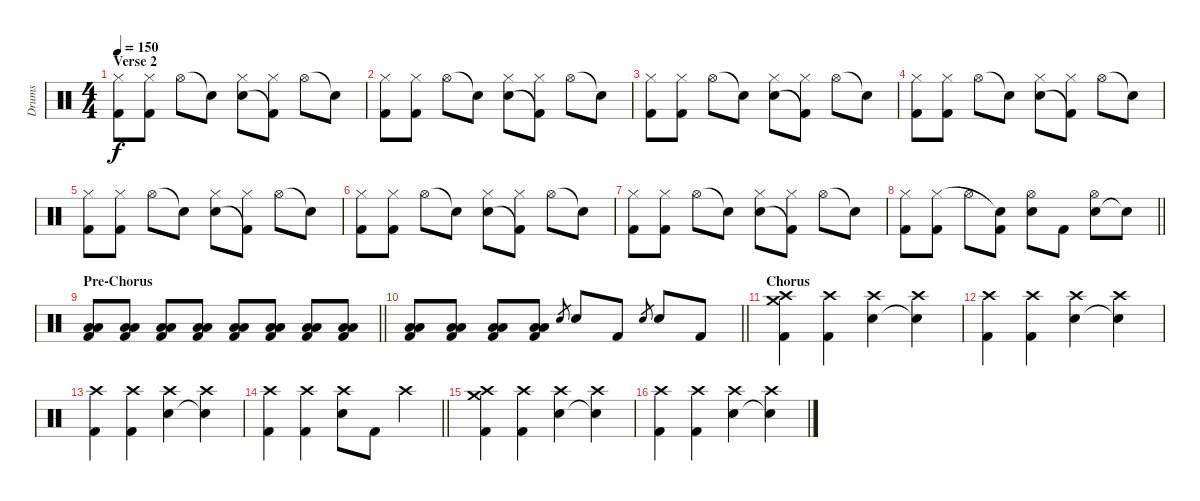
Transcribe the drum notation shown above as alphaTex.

\track ("Drums" "Drums") {instrument percussion}
\staff {score}
\articulation defaults
\ts (4 4)
\section ("" "Verse 2")
\tempo 150
\clef neutral
\ks c
("Kick (hit) 2" "Hi-Hat (closed)").8{dy f} ("Kick (hit) 2" "Hi-Hat (closed)").8 "Hi-Hat (open)".8 "Snare (hit)"{t}.8 ("Electric Snare (hit)" "Hi-Hat (closed)").8 ("Kick (hit) 2"{t} "Hi-Hat (closed)").8 "Hi-Hat (open)".8 "Snare (hit)"{t}.8 |
("Kick (hit) 2" "Hi-Hat (closed)").8 ("Kick (hit) 2" "Hi-Hat (closed)").8 "Hi-Hat (open)".8 "Snare (hit)"{t}.8 ("Electric Snare (hit)" "Hi-Hat (closed)").8 ("Kick (hit) 2"{t} "Hi-Hat (closed)").8 "Hi-Hat (open)".8 "Snare (hit)"{t}.8 |
("Kick (hit) 2" "Hi-Hat (closed)").8 ("Kick (hit) 2" "Hi-Hat (closed)").8 "Hi-Hat (open)".8 "Snare (hit)"{t}.8 ("Electric Snare (hit)" "Hi-Hat (closed)").8 ("Kick (hit) 2"{t} "Hi-Hat (closed)").8 "Hi-Hat (open)".8 "Snare (hit)"{t}.8 |
("Kick (hit) 2" "Hi-Hat (closed)").8 ("Kick (hit) 2" "Hi-Hat (closed)").8 "Hi-Hat (open)".8 "Snare (hit)"{t}.8 ("Electric Snare (hit)" "Hi-Hat (closed)").8 ("Kick (hit) 2"{t} "Hi-Hat (closed)").8 "Hi-Hat (open)".8 "Snare (hit)"{t}.8 |
("Kick (hit) 2" "Hi-Hat (closed)").8 ("Kick (hit) 2" "Hi-Hat (closed)").8 "Hi-Hat (open)".8 "Snare (hit)"{t}.8 ("Electric Snare (hit)" "Hi-Hat (closed)").8 ("Kick (hit) 2"{t} "Hi-Hat (closed)").8 "Hi-Hat (open)".8 "Snare (hit)"{t}.8 |
("Kick (hit) 2" "Hi-Hat (closed)").8 ("Kick (hit) 2" "Hi-Hat (closed)").8 "Hi-Hat (open)".8 "Snare (hit)"{t}.8 ("Electric Snare (hit)" "Hi-Hat (closed)").8 ("Kick (hit) 2"{t} "Hi-Hat (closed)").8 "Hi-Hat (open)".8 "Snare (hit)"{t}.8 |
("Kick (hit) 2" "Hi-Hat (closed)").8 ("Kick (hit) 2" "Hi-Hat (closed)").8 "Hi-Hat (open)".8 "Snare (hit)"{t}.8 ("Electric Snare (hit)" "Hi-Hat (closed)").8 ("Kick (hit) 2"{t} "Hi-Hat (closed)").8 "Hi-Hat (open)".8 "Snare (hit)"{t}.8 |
\barLineRight lightlight
("Kick (hit) 2" "Hi-Hat (closed)").8 ("Kick (hit) 2" "Hi-Hat (closed)").8 "Hi-Hat (open)".8 ("Kick (hit) 2" "Snare (hit)"{t}).8 ("Electric Snare (hit)" "Hi-Hat (open)").8 "Kick (hit) 2".8 ("Electric Snare (hit)" "Hi-Hat (open)").8 "Snare (hit)"{t}.8 |
\section ("" "Pre-Chorus")
\barLineRight lightlight
("Kick (hit) 2" "Low Tom (hit)" "Low Floor Tom (hit)").8{volume 7} ("Kick (hit) 2" "Low Tom (hit)" "Low Floor Tom (hit)").8{volume 13} ("Kick (hit) 2" "Low Tom (hit)" "Low Floor Tom (hit)").8 ("Kick (hit) 2" "Low Tom (hit)" "Low Floor Tom (hit)").8 ("Kick (hit) 2" "Low Tom (hit)" "Low Floor Tom (hit)").8 ("Kick (hit) 2" "Low Tom (hit)" "Low Floor Tom (hit)").8 ("Kick (hit) 2" "Low Tom (hit)" "Low Floor Tom (hit)").8 ("Kick (hit) 2" "Low Tom (hit)" "Low Floor Tom (hit)").8 |
\barLineRight lightlight
("Kick (hit) 2" "Low Tom (hit)" "Low Floor Tom (hit)").8 ("Kick (hit) 2" "Low Tom (hit)" "Low Floor Tom (hit)").8 ("Kick (hit) 2" "Low Tom (hit)" "Low Floor Tom (hit)").8 ("Kick (hit) 2" "Low Tom (hit)" "Low Floor Tom (hit)").8 "Electric Snare (hit)".8{gr} "Electric Snare (hit)".8 "Kick (hit) 2".8 "Electric Snare (hit)".8{gr} "Electric Snare (hit)".8 "Kick (hit) 2".8 |
\section ("" "Chorus")
("Kick (hit) 2" "Crash medium (hit)" "Crash high (hit)").4 ("Kick (hit) 2" "Crash high (hit)").4 ("Electric Snare (hit)" "Crash high (hit)").4 ("Snare (hit)"{t} "Crash high (hit)").4 |
("Kick (hit) 2" "Crash high (hit)").4 ("Kick (hit) 2" "Crash high (hit)").4 ("Electric Snare (hit)" "Crash high (hit)").4 ("Snare (hit)"{t} "Crash high (hit)").4 |
("Kick (hit) 2" "Crash high (hit)").4 ("Kick (hit) 2" "Crash high (hit)").4 ("Electric Snare (hit)" "Crash high (hit)").4 ("Snare (hit)"{t} "Crash high (hit)").4 |
\barLineRight lightlight
("Kick (hit) 2" "Crash high (hit)").4 ("Kick (hit) 2" "Crash high (hit)").4 ("Electric Snare (hit)" "Crash high (hit)").8 "Kick (hit) 2".8 "Crash high (hit)".4 |
("Kick (hit) 2" "Crash medium (hit)" "Crash high (hit)").4 ("Kick (hit) 2" "Crash high (hit)").4 ("Electric Snare (hit)" "Crash high (hit)").4 ("Snare (hit)"{t} "Crash high (hit)").4 |
("Kick (hit) 2" "Crash high (hit)").4 ("Kick (hit) 2" "Crash high (hit)").4 ("Electric Snare (hit)" "Crash high (hit)").4 ("Snare (hit)"{t} "Crash high (hit)").4
